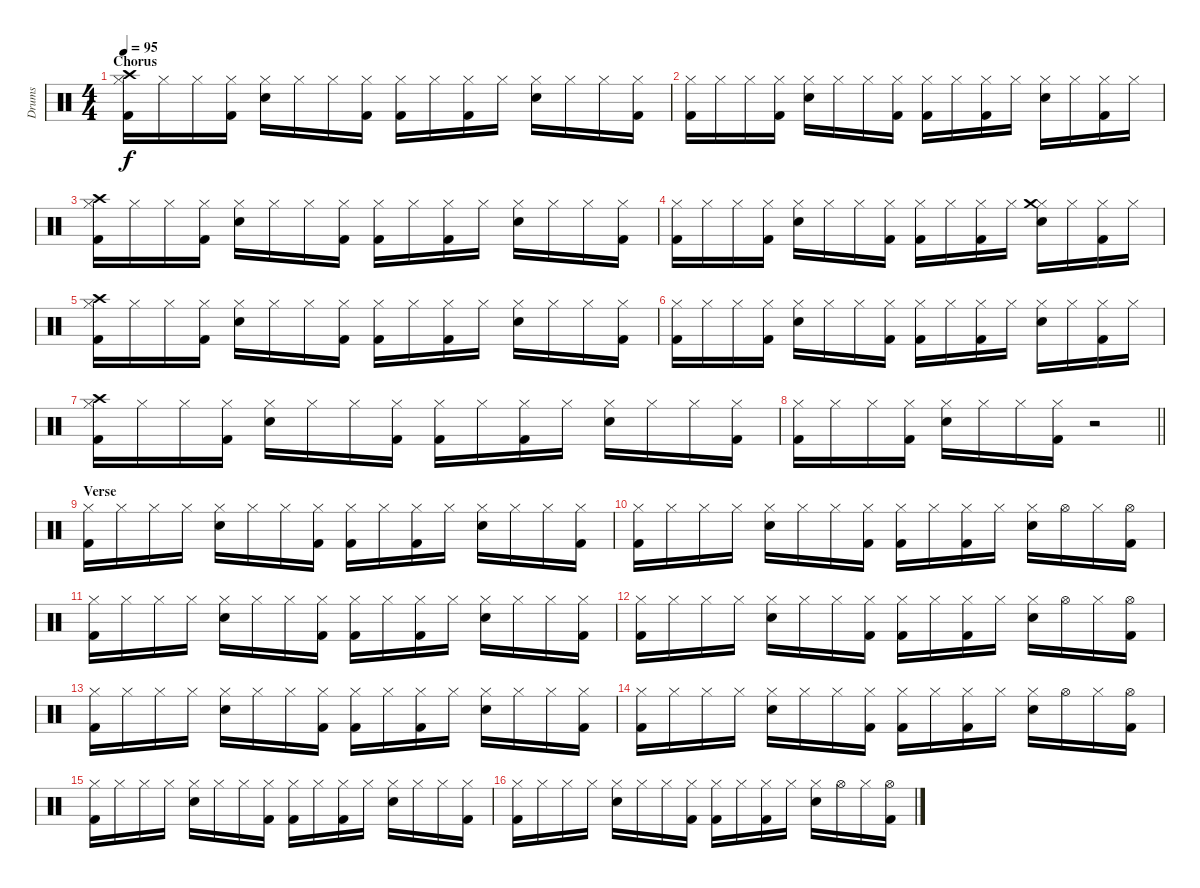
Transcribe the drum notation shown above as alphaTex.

\track ("Drums" "Drums") {instrument percussion}
\staff {score}
\articulation defaults
\ts (4 4)
\section ("" "Chorus")
\tempo 95
\clef neutral
\ks c
("Hi-Hat (closed)" "Crash high (hit)" "Kick (hit) 2").16{dy f} "Hi-Hat (closed)".16 "Hi-Hat (closed)".16 ("Hi-Hat (closed)" "Kick (hit) 2").16 ("Hi-Hat (closed)" "Electric Snare (hit)").16 "Hi-Hat (closed)".16 "Hi-Hat (closed)".16 ("Hi-Hat (closed)" "Kick (hit) 2").16 ("Hi-Hat (closed)" "Kick (hit) 2").16 "Hi-Hat (closed)".16 ("Hi-Hat (closed)" "Kick (hit) 2").16 "Hi-Hat (closed)".16 ("Hi-Hat (closed)" "Electric Snare (hit)").16 "Hi-Hat (closed)".16 "Hi-Hat (closed)".16 ("Hi-Hat (closed)" "Kick (hit) 2").16 |
("Hi-Hat (closed)" "Kick (hit) 2").16 "Hi-Hat (closed)".16 "Hi-Hat (closed)".16 ("Hi-Hat (closed)" "Kick (hit) 2").16 ("Hi-Hat (closed)" "Electric Snare (hit)").16 "Hi-Hat (closed)".16 "Hi-Hat (closed)".16 ("Hi-Hat (closed)" "Kick (hit) 2").16 ("Hi-Hat (closed)" "Kick (hit) 2").16 "Hi-Hat (closed)".16 ("Hi-Hat (closed)" "Kick (hit) 2").16 "Hi-Hat (closed)".16 ("Hi-Hat (closed)" "Electric Snare (hit)").16 "Hi-Hat (closed)".16 ("Hi-Hat (closed)" "Kick (hit) 2").16 "Hi-Hat (closed)".16 |
("Hi-Hat (closed)" "Crash high (hit)" "Kick (hit) 2").16 "Hi-Hat (closed)".16 "Hi-Hat (closed)".16 ("Hi-Hat (closed)" "Kick (hit) 2").16 ("Hi-Hat (closed)" "Electric Snare (hit)").16 "Hi-Hat (closed)".16 "Hi-Hat (closed)".16 ("Hi-Hat (closed)" "Kick (hit) 2").16 ("Hi-Hat (closed)" "Kick (hit) 2").16 "Hi-Hat (closed)".16 ("Hi-Hat (closed)" "Kick (hit) 2").16 "Hi-Hat (closed)".16 ("Hi-Hat (closed)" "Electric Snare (hit)").16 "Hi-Hat (closed)".16 "Hi-Hat (closed)".16 ("Hi-Hat (closed)" "Kick (hit) 2").16 |
("Hi-Hat (closed)" "Kick (hit) 2").16 "Hi-Hat (closed)".16 "Hi-Hat (closed)".16 ("Hi-Hat (closed)" "Kick (hit) 2").16 ("Hi-Hat (closed)" "Electric Snare (hit)").16 "Hi-Hat (closed)".16 "Hi-Hat (closed)".16 ("Hi-Hat (closed)" "Kick (hit) 2").16 ("Hi-Hat (closed)" "Kick (hit) 2").16 "Hi-Hat (closed)".16 ("Hi-Hat (closed)" "Kick (hit) 2").16 "Hi-Hat (closed)".16 ("Hi-Hat (closed)" "Electric Snare (hit)" "Crash medium (hit)").16 "Hi-Hat (closed)".16 ("Hi-Hat (closed)" "Kick (hit) 2").16 "Hi-Hat (closed)".16 |
("Hi-Hat (closed)" "Crash high (hit)" "Kick (hit) 2").16 "Hi-Hat (closed)".16 "Hi-Hat (closed)".16 ("Hi-Hat (closed)" "Kick (hit) 2").16 ("Hi-Hat (closed)" "Electric Snare (hit)").16 "Hi-Hat (closed)".16 "Hi-Hat (closed)".16 ("Hi-Hat (closed)" "Kick (hit) 2").16 ("Hi-Hat (closed)" "Kick (hit) 2").16 "Hi-Hat (closed)".16 ("Hi-Hat (closed)" "Kick (hit) 2").16 "Hi-Hat (closed)".16 ("Hi-Hat (closed)" "Electric Snare (hit)").16 "Hi-Hat (closed)".16 "Hi-Hat (closed)".16 ("Hi-Hat (closed)" "Kick (hit) 2").16 |
("Hi-Hat (closed)" "Kick (hit) 2").16 "Hi-Hat (closed)".16 "Hi-Hat (closed)".16 ("Hi-Hat (closed)" "Kick (hit) 2").16 ("Hi-Hat (closed)" "Electric Snare (hit)").16 "Hi-Hat (closed)".16 "Hi-Hat (closed)".16 ("Hi-Hat (closed)" "Kick (hit) 2").16 ("Hi-Hat (closed)" "Kick (hit) 2").16 "Hi-Hat (closed)".16 ("Hi-Hat (closed)" "Kick (hit) 2").16 "Hi-Hat (closed)".16 ("Hi-Hat (closed)" "Electric Snare (hit)").16 "Hi-Hat (closed)".16 ("Hi-Hat (closed)" "Kick (hit) 2").16 "Hi-Hat (closed)".16 |
("Hi-Hat (closed)" "Crash high (hit)" "Kick (hit) 2").16 "Hi-Hat (closed)".16 "Hi-Hat (closed)".16 ("Hi-Hat (closed)" "Kick (hit) 2").16 ("Hi-Hat (closed)" "Electric Snare (hit)").16 "Hi-Hat (closed)".16 "Hi-Hat (closed)".16 ("Hi-Hat (closed)" "Kick (hit) 2").16 ("Hi-Hat (closed)" "Kick (hit) 2").16 "Hi-Hat (closed)".16 ("Hi-Hat (closed)" "Kick (hit) 2").16 "Hi-Hat (closed)".16 ("Hi-Hat (closed)" "Electric Snare (hit)").16 "Hi-Hat (closed)".16 "Hi-Hat (closed)".16 ("Hi-Hat (closed)" "Kick (hit) 2").16 |
\barLineRight lightlight
("Hi-Hat (closed)" "Kick (hit) 2").16 "Hi-Hat (closed)".16 "Hi-Hat (closed)".16 ("Hi-Hat (closed)" "Kick (hit) 2").16 ("Hi-Hat (closed)" "Electric Snare (hit)").16 "Hi-Hat (closed)".16 "Hi-Hat (closed)".16 ("Hi-Hat (closed)" "Kick (hit) 2").16 r.2 |
\section ("" "Verse")
("Hi-Hat (closed)" "Kick (hit) 2").16 "Hi-Hat (closed)".16 "Hi-Hat (closed)".16 "Hi-Hat (closed)".16 ("Hi-Hat (closed)" "Electric Snare (hit)").16 "Hi-Hat (closed)".16 "Hi-Hat (closed)".16 ("Hi-Hat (closed)" "Kick (hit) 2").16 ("Hi-Hat (closed)" "Kick (hit) 2").16 "Hi-Hat (closed)".16 ("Hi-Hat (closed)" "Kick (hit) 2").16 "Hi-Hat (closed)".16 ("Hi-Hat (closed)" "Electric Snare (hit)").16 "Hi-Hat (closed)".16 "Hi-Hat (closed)".16 ("Kick (hit) 2" "Hi-Hat (closed)").16 |
("Hi-Hat (closed)" "Kick (hit) 2").16 "Hi-Hat (closed)".16 "Hi-Hat (closed)".16 "Hi-Hat (closed)".16 ("Hi-Hat (closed)" "Electric Snare (hit)").16 "Hi-Hat (closed)".16 "Hi-Hat (closed)".16 ("Hi-Hat (closed)" "Kick (hit) 2").16 ("Hi-Hat (closed)" "Kick (hit) 2").16 "Hi-Hat (closed)".16 ("Hi-Hat (closed)" "Kick (hit) 2").16 "Hi-Hat (closed)".16 ("Hi-Hat (closed)" "Electric Snare (hit)").16 "Hi-Hat (open)".16 "Hi-Hat (closed)".16 ("Hi-Hat (open)" "Kick (hit) 2").16 |
("Hi-Hat (closed)" "Kick (hit) 2").16 "Hi-Hat (closed)".16 "Hi-Hat (closed)".16 "Hi-Hat (closed)".16 ("Hi-Hat (closed)" "Electric Snare (hit)").16 "Hi-Hat (closed)".16 "Hi-Hat (closed)".16 ("Hi-Hat (closed)" "Kick (hit) 2").16 ("Hi-Hat (closed)" "Kick (hit) 2").16 "Hi-Hat (closed)".16 ("Hi-Hat (closed)" "Kick (hit) 2").16 "Hi-Hat (closed)".16 ("Hi-Hat (closed)" "Electric Snare (hit)").16 "Hi-Hat (closed)".16 "Hi-Hat (closed)".16 ("Kick (hit) 2" "Hi-Hat (closed)").16 |
("Hi-Hat (closed)" "Kick (hit) 2").16 "Hi-Hat (closed)".16 "Hi-Hat (closed)".16 "Hi-Hat (closed)".16 ("Hi-Hat (closed)" "Electric Snare (hit)").16 "Hi-Hat (closed)".16 "Hi-Hat (closed)".16 ("Hi-Hat (closed)" "Kick (hit) 2").16 ("Hi-Hat (closed)" "Kick (hit) 2").16 "Hi-Hat (closed)".16 ("Hi-Hat (closed)" "Kick (hit) 2").16 "Hi-Hat (closed)".16 ("Hi-Hat (closed)" "Electric Snare (hit)").16 "Hi-Hat (open)".16 "Hi-Hat (closed)".16 ("Hi-Hat (open)" "Kick (hit) 2").16 |
("Hi-Hat (closed)" "Kick (hit) 2").16 "Hi-Hat (closed)".16 "Hi-Hat (closed)".16 "Hi-Hat (closed)".16 ("Hi-Hat (closed)" "Electric Snare (hit)").16 "Hi-Hat (closed)".16 "Hi-Hat (closed)".16 ("Hi-Hat (closed)" "Kick (hit) 2").16 ("Hi-Hat (closed)" "Kick (hit) 2").16 "Hi-Hat (closed)".16 ("Hi-Hat (closed)" "Kick (hit) 2").16 "Hi-Hat (closed)".16 ("Hi-Hat (closed)" "Electric Snare (hit)").16 "Hi-Hat (closed)".16 "Hi-Hat (closed)".16 ("Kick (hit) 2" "Hi-Hat (closed)").16 |
("Hi-Hat (closed)" "Kick (hit) 2").16 "Hi-Hat (closed)".16 "Hi-Hat (closed)".16 "Hi-Hat (closed)".16 ("Hi-Hat (closed)" "Electric Snare (hit)").16 "Hi-Hat (closed)".16 "Hi-Hat (closed)".16 ("Hi-Hat (closed)" "Kick (hit) 2").16 ("Hi-Hat (closed)" "Kick (hit) 2").16 "Hi-Hat (closed)".16 ("Hi-Hat (closed)" "Kick (hit) 2").16 "Hi-Hat (closed)".16 ("Hi-Hat (closed)" "Electric Snare (hit)").16 "Hi-Hat (open)".16 "Hi-Hat (closed)".16 ("Hi-Hat (open)" "Kick (hit) 2").16 |
("Hi-Hat (closed)" "Kick (hit) 2").16 "Hi-Hat (closed)".16 "Hi-Hat (closed)".16 "Hi-Hat (closed)".16 ("Hi-Hat (closed)" "Electric Snare (hit)").16 "Hi-Hat (closed)".16 "Hi-Hat (closed)".16 ("Hi-Hat (closed)" "Kick (hit) 2").16 ("Hi-Hat (closed)" "Kick (hit) 2").16 "Hi-Hat (closed)".16 ("Hi-Hat (closed)" "Kick (hit) 2").16 "Hi-Hat (closed)".16 ("Hi-Hat (closed)" "Electric Snare (hit)").16 "Hi-Hat (closed)".16 "Hi-Hat (closed)".16 ("Kick (hit) 2" "Hi-Hat (closed)").16 |
("Hi-Hat (closed)" "Kick (hit) 2").16 "Hi-Hat (closed)".16 "Hi-Hat (closed)".16 "Hi-Hat (closed)".16 ("Hi-Hat (closed)" "Electric Snare (hit)").16 "Hi-Hat (closed)".16 "Hi-Hat (closed)".16 ("Hi-Hat (closed)" "Kick (hit) 2").16 ("Hi-Hat (closed)" "Kick (hit) 2").16 "Hi-Hat (closed)".16 ("Hi-Hat (closed)" "Kick (hit) 2").16 "Hi-Hat (closed)".16 ("Hi-Hat (closed)" "Electric Snare (hit)").16 "Hi-Hat (open)".16 "Hi-Hat (closed)".16 ("Hi-Hat (open)" "Kick (hit) 2").16
